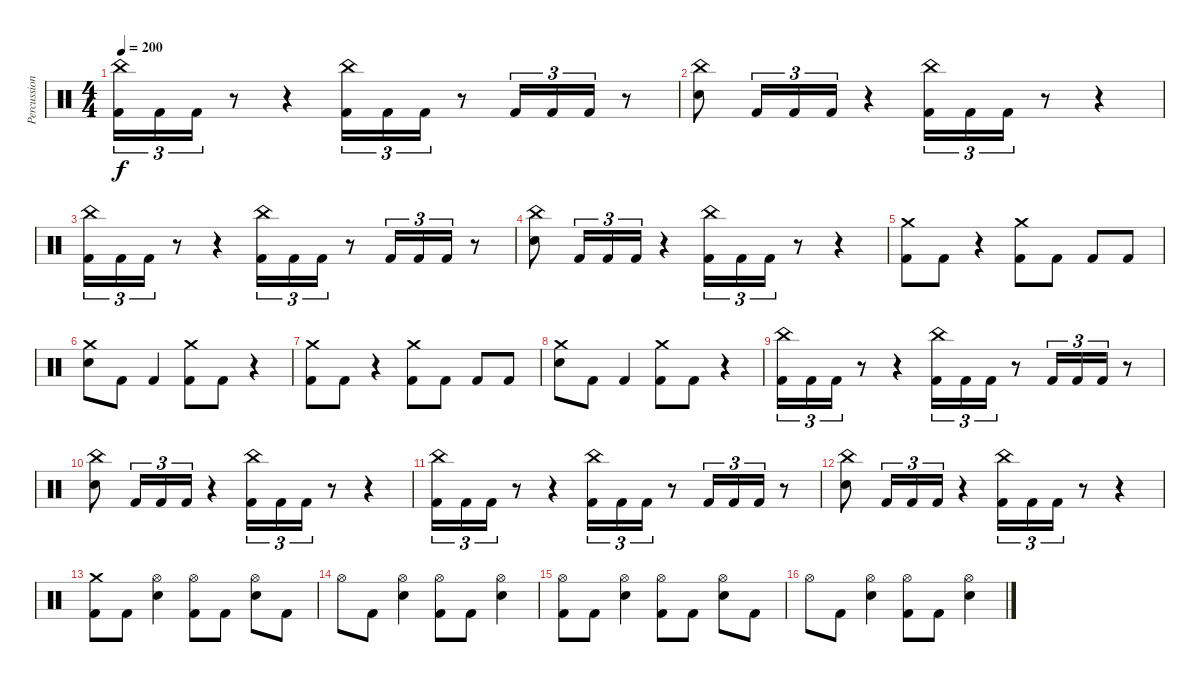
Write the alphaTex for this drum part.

\track ("Percussion" "Percussion") {instrument percussion}
\staff {score}
\articulation defaults
\ts (4 4)
\tempo 200
\clef neutral
\ks c
("China (hit)" "Kick (hit) 2").16{tu (3 2) dy f} "Kick (hit) 2".16{tu (3 2)} "Kick (hit) 2".16{tu (3 2)} r.8 r.4 ("China (hit)" "Kick (hit) 2").16{tu (3 2)} "Kick (hit) 2".16{tu (3 2)} "Kick (hit) 2".16{tu (3 2)} r.8 "Kick (hit) 2".16{tu (3 2)} "Kick (hit) 2".16{tu (3 2)} "Kick (hit) 2".16{tu (3 2)} r.8 |
("China (hit)" "Electric Snare (hit)").8 "Kick (hit) 2".16{tu (3 2)} "Kick (hit) 2".16{tu (3 2)} "Kick (hit) 2".16{tu (3 2)} r.4 ("China (hit)" "Kick (hit) 2").16{tu (3 2)} "Kick (hit) 2".16{tu (3 2)} "Kick (hit) 2".16{tu (3 2)} r.8 r.4 |
("China (hit)" "Kick (hit) 2").16{tu (3 2)} "Kick (hit) 2".16{tu (3 2)} "Kick (hit) 2".16{tu (3 2)} r.8 r.4 ("China (hit)" "Kick (hit) 2").16{tu (3 2)} "Kick (hit) 2".16{tu (3 2)} "Kick (hit) 2".16{tu (3 2)} r.8 "Kick (hit) 2".16{tu (3 2)} "Kick (hit) 2".16{tu (3 2)} "Kick (hit) 2".16{tu (3 2)} r.8 |
("China (hit)" "Electric Snare (hit)").8 "Kick (hit) 2".16{tu (3 2)} "Kick (hit) 2".16{tu (3 2)} "Kick (hit) 2".16{tu (3 2)} r.4 ("China (hit)" "Kick (hit) 2").16{tu (3 2)} "Kick (hit) 2".16{tu (3 2)} "Kick (hit) 2".16{tu (3 2)} r.8 r.4 |
("Crash medium (hit)" "Kick (hit) 2").8 "Kick (hit) 2".8 r.4 ("Crash medium (hit)" "Kick (hit) 2").8 "Kick (hit) 2".8 "Kick (hit) 2".8 "Kick (hit) 2".8 |
("Crash medium (hit)" "Electric Snare (hit)").8 "Kick (hit) 2".8 "Kick (hit) 2".4 ("Crash medium (hit)" "Kick (hit) 2").8 "Kick (hit) 2".8 r.4 |
("Crash medium (hit)" "Kick (hit) 2").8 "Kick (hit) 2".8 r.4 ("Crash medium (hit)" "Kick (hit) 2").8 "Kick (hit) 2".8 "Kick (hit) 2".8 "Kick (hit) 2".8 |
("Crash medium (hit)" "Electric Snare (hit)").8 "Kick (hit) 2".8 "Kick (hit) 2".4 ("Crash medium (hit)" "Kick (hit) 2").8 "Kick (hit) 2".8 r.4 |
("China (hit)" "Kick (hit) 2").16{tu (3 2)} "Kick (hit) 2".16{tu (3 2)} "Kick (hit) 2".16{tu (3 2)} r.8 r.4 ("China (hit)" "Kick (hit) 2").16{tu (3 2)} "Kick (hit) 2".16{tu (3 2)} "Kick (hit) 2".16{tu (3 2)} r.8 "Kick (hit) 2".16{tu (3 2)} "Kick (hit) 2".16{tu (3 2)} "Kick (hit) 2".16{tu (3 2)} r.8 |
("China (hit)" "Electric Snare (hit)").8 "Kick (hit) 2".16{tu (3 2)} "Kick (hit) 2".16{tu (3 2)} "Kick (hit) 2".16{tu (3 2)} r.4 ("China (hit)" "Kick (hit) 2").16{tu (3 2)} "Kick (hit) 2".16{tu (3 2)} "Kick (hit) 2".16{tu (3 2)} r.8 r.4 |
("China (hit)" "Kick (hit) 2").16{tu (3 2)} "Kick (hit) 2".16{tu (3 2)} "Kick (hit) 2".16{tu (3 2)} r.8 r.4 ("China (hit)" "Kick (hit) 2").16{tu (3 2)} "Kick (hit) 2".16{tu (3 2)} "Kick (hit) 2".16{tu (3 2)} r.8 "Kick (hit) 2".16{tu (3 2)} "Kick (hit) 2".16{tu (3 2)} "Kick (hit) 2".16{tu (3 2)} r.8 |
("China (hit)" "Electric Snare (hit)").8 "Kick (hit) 2".16{tu (3 2)} "Kick (hit) 2".16{tu (3 2)} "Kick (hit) 2".16{tu (3 2)} r.4 ("China (hit)" "Kick (hit) 2").16{tu (3 2)} "Kick (hit) 2".16{tu (3 2)} "Kick (hit) 2".16{tu (3 2)} r.8 r.4 |
("Crash medium (hit)" "Kick (hit) 2").8 "Kick (hit) 2".8 ("Hi-Hat (open)" "Electric Snare (hit)").4 ("Hi-Hat (open)" "Kick (hit) 2").8 "Kick (hit) 2".8 ("Hi-Hat (open)" "Electric Snare (hit)").8 "Kick (hit) 2".8 |
"Hi-Hat (open)".8 "Kick (hit) 2".8 ("Hi-Hat (open)" "Electric Snare (hit)").4 ("Hi-Hat (open)" "Kick (hit) 2").8 "Kick (hit) 2".8 ("Hi-Hat (open)" "Electric Snare (hit)").4 |
("Hi-Hat (open)" "Kick (hit) 2").8 "Kick (hit) 2".8 ("Hi-Hat (open)" "Electric Snare (hit)").4 ("Hi-Hat (open)" "Kick (hit) 2").8 "Kick (hit) 2".8 ("Hi-Hat (open)" "Electric Snare (hit)").8 "Kick (hit) 2".8 |
"Hi-Hat (open)".8 "Kick (hit) 2".8 ("Hi-Hat (open)" "Electric Snare (hit)").4 ("Hi-Hat (open)" "Kick (hit) 2").8 "Kick (hit) 2".8 ("Hi-Hat (open)" "Electric Snare (hit)").4
